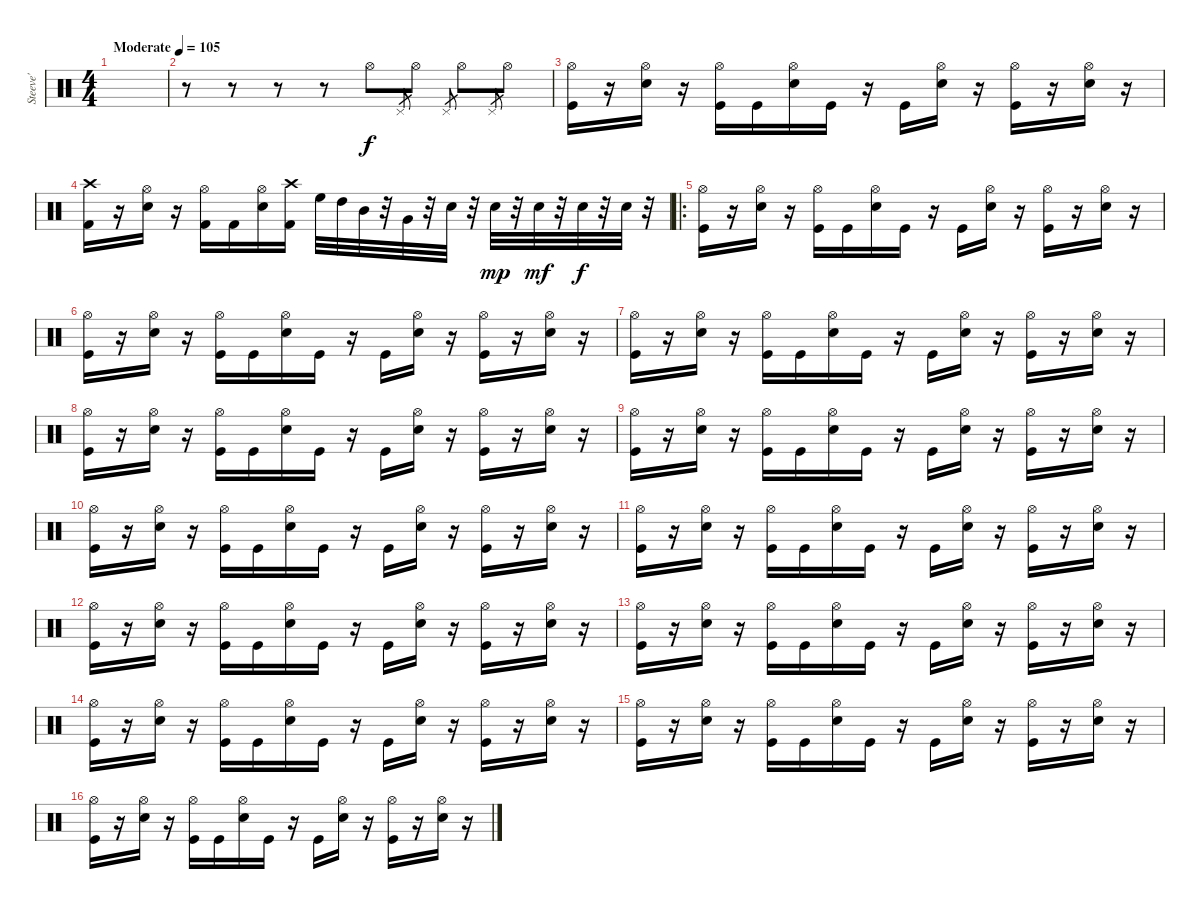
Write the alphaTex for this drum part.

\track ("Steeve'" "Steeve'") {instrument percussion}
\staff {score}
\articulation defaults
\ts (4 4)
\tempo (105 "Moderate")
\clef neutral
\ks c
|
r.8 r.8 r.8 r.8 "Hi-Hat (open)".8 "Pedal Hi-Hat (hit)".8{gr} "Hi-Hat (open)".8 "Pedal Hi-Hat (hit)".8{gr} "Hi-Hat (open)".8 "Pedal Hi-Hat (hit)".8{gr} "Hi-Hat (open)".8 |
("Kick (hit)" "Hi-Hat (open)").16 r.16 ("Electric Snare (hit)" "Hi-Hat (open)").16 r.16 ("Kick (hit)" "Hi-Hat (open)").16 "Kick (hit)".16 ("Electric Snare (hit)" "Hi-Hat (open)").16 "Kick (hit)".16 r.16 "Kick (hit)".16 ("Electric Snare (hit)" "Hi-Hat (open)").16 r.16 ("Kick (hit)" "Hi-Hat (open)").16 r.16 ("Electric Snare (hit)" "Hi-Hat (open)").16 r.16 |
("Kick (hit) 2" "Crash high (hit)").16 r.16 ("Electric Snare (hit)" "Hi-Hat (open)").16 r.16 ("Kick (hit) 2" "Hi-Hat (open)").16 "Kick (hit) 2".16 ("Electric Snare (hit)" "Hi-Hat (open)").16 ("Kick (hit) 2" "Crash high (hit)").16 "High Floor Tom (hit)".32 "High Tom (hit)".32 "Mid Tom (hit)".32 r.32 "Very Low Tom (hit)".32 r.32 "Electric Snare (hit)".32 r.32 "Electric Snare (hit)".32{dy mp} r.32 "Electric Snare (hit)".32{dy mf} r.32 "Electric Snare (hit)".32{dy f} r.32 "Electric Snare (hit)".32 r.32 |
\ro
("Kick (hit)" "Hi-Hat (open)").16 r.16 ("Electric Snare (hit)" "Hi-Hat (open)").16 r.16 ("Kick (hit)" "Hi-Hat (open)").16 "Kick (hit)".16 ("Electric Snare (hit)" "Hi-Hat (open)").16 "Kick (hit)".16 r.16 "Kick (hit)".16 ("Electric Snare (hit)" "Hi-Hat (open)").16 r.16 ("Kick (hit)" "Hi-Hat (open)").16 r.16 ("Electric Snare (hit)" "Hi-Hat (open)").16 r.16 |
("Kick (hit)" "Hi-Hat (open)").16 r.16 ("Electric Snare (hit)" "Hi-Hat (open)").16 r.16 ("Kick (hit)" "Hi-Hat (open)").16 "Kick (hit)".16 ("Electric Snare (hit)" "Hi-Hat (open)").16 "Kick (hit)".16 r.16 "Kick (hit)".16 ("Electric Snare (hit)" "Hi-Hat (open)").16 r.16 ("Kick (hit)" "Hi-Hat (open)").16 r.16 ("Electric Snare (hit)" "Hi-Hat (open)").16 r.16 |
("Kick (hit)" "Hi-Hat (open)").16 r.16 ("Electric Snare (hit)" "Hi-Hat (open)").16 r.16 ("Kick (hit)" "Hi-Hat (open)").16 "Kick (hit)".16 ("Electric Snare (hit)" "Hi-Hat (open)").16 "Kick (hit)".16 r.16 "Kick (hit)".16 ("Electric Snare (hit)" "Hi-Hat (open)").16 r.16 ("Kick (hit)" "Hi-Hat (open)").16 r.16 ("Electric Snare (hit)" "Hi-Hat (open)").16 r.16 |
("Kick (hit)" "Hi-Hat (open)").16 r.16 ("Electric Snare (hit)" "Hi-Hat (open)").16 r.16 ("Kick (hit)" "Hi-Hat (open)").16 "Kick (hit)".16 ("Electric Snare (hit)" "Hi-Hat (open)").16 "Kick (hit)".16 r.16 "Kick (hit)".16 ("Electric Snare (hit)" "Hi-Hat (open)").16 r.16 ("Kick (hit)" "Hi-Hat (open)").16 r.16 ("Electric Snare (hit)" "Hi-Hat (open)").16 r.16 |
("Kick (hit)" "Hi-Hat (open)").16 r.16 ("Electric Snare (hit)" "Hi-Hat (open)").16 r.16 ("Kick (hit)" "Hi-Hat (open)").16 "Kick (hit)".16 ("Electric Snare (hit)" "Hi-Hat (open)").16 "Kick (hit)".16 r.16 "Kick (hit)".16 ("Electric Snare (hit)" "Hi-Hat (open)").16 r.16 ("Kick (hit)" "Hi-Hat (open)").16 r.16 ("Electric Snare (hit)" "Hi-Hat (open)").16 r.16 |
("Kick (hit)" "Hi-Hat (open)").16 r.16 ("Electric Snare (hit)" "Hi-Hat (open)").16 r.16 ("Kick (hit)" "Hi-Hat (open)").16 "Kick (hit)".16 ("Electric Snare (hit)" "Hi-Hat (open)").16 "Kick (hit)".16 r.16 "Kick (hit)".16 ("Electric Snare (hit)" "Hi-Hat (open)").16 r.16 ("Kick (hit)" "Hi-Hat (open)").16 r.16 ("Electric Snare (hit)" "Hi-Hat (open)").16 r.16 |
("Kick (hit)" "Hi-Hat (open)").16 r.16 ("Electric Snare (hit)" "Hi-Hat (open)").16 r.16 ("Kick (hit)" "Hi-Hat (open)").16 "Kick (hit)".16 ("Electric Snare (hit)" "Hi-Hat (open)").16 "Kick (hit)".16 r.16 "Kick (hit)".16 ("Electric Snare (hit)" "Hi-Hat (open)").16 r.16 ("Kick (hit)" "Hi-Hat (open)").16 r.16 ("Electric Snare (hit)" "Hi-Hat (open)").16 r.16 |
("Kick (hit)" "Hi-Hat (open)").16 r.16 ("Electric Snare (hit)" "Hi-Hat (open)").16 r.16 ("Kick (hit)" "Hi-Hat (open)").16 "Kick (hit)".16 ("Electric Snare (hit)" "Hi-Hat (open)").16 "Kick (hit)".16 r.16 "Kick (hit)".16 ("Electric Snare (hit)" "Hi-Hat (open)").16 r.16 ("Kick (hit)" "Hi-Hat (open)").16 r.16 ("Electric Snare (hit)" "Hi-Hat (open)").16 r.16 |
("Kick (hit)" "Hi-Hat (open)").16 r.16 ("Electric Snare (hit)" "Hi-Hat (open)").16 r.16 ("Kick (hit)" "Hi-Hat (open)").16 "Kick (hit)".16 ("Electric Snare (hit)" "Hi-Hat (open)").16 "Kick (hit)".16 r.16 "Kick (hit)".16 ("Electric Snare (hit)" "Hi-Hat (open)").16 r.16 ("Kick (hit)" "Hi-Hat (open)").16 r.16 ("Electric Snare (hit)" "Hi-Hat (open)").16 r.16 |
("Kick (hit)" "Hi-Hat (open)").16 r.16 ("Electric Snare (hit)" "Hi-Hat (open)").16 r.16 ("Kick (hit)" "Hi-Hat (open)").16 "Kick (hit)".16 ("Electric Snare (hit)" "Hi-Hat (open)").16 "Kick (hit)".16 r.16 "Kick (hit)".16 ("Electric Snare (hit)" "Hi-Hat (open)").16 r.16 ("Kick (hit)" "Hi-Hat (open)").16 r.16 ("Electric Snare (hit)" "Hi-Hat (open)").16 r.16 |
("Kick (hit)" "Hi-Hat (open)").16 r.16 ("Electric Snare (hit)" "Hi-Hat (open)").16 r.16 ("Kick (hit)" "Hi-Hat (open)").16 "Kick (hit)".16 ("Electric Snare (hit)" "Hi-Hat (open)").16 "Kick (hit)".16 r.16 "Kick (hit)".16 ("Electric Snare (hit)" "Hi-Hat (open)").16 r.16 ("Kick (hit)" "Hi-Hat (open)").16 r.16 ("Electric Snare (hit)" "Hi-Hat (open)").16 r.16 |
("Kick (hit)" "Hi-Hat (open)").16 r.16 ("Electric Snare (hit)" "Hi-Hat (open)").16 r.16 ("Kick (hit)" "Hi-Hat (open)").16 "Kick (hit)".16 ("Electric Snare (hit)" "Hi-Hat (open)").16 "Kick (hit)".16 r.16 "Kick (hit)".16 ("Electric Snare (hit)" "Hi-Hat (open)").16 r.16 ("Kick (hit)" "Hi-Hat (open)").16 r.16 ("Electric Snare (hit)" "Hi-Hat (open)").16 r.16
